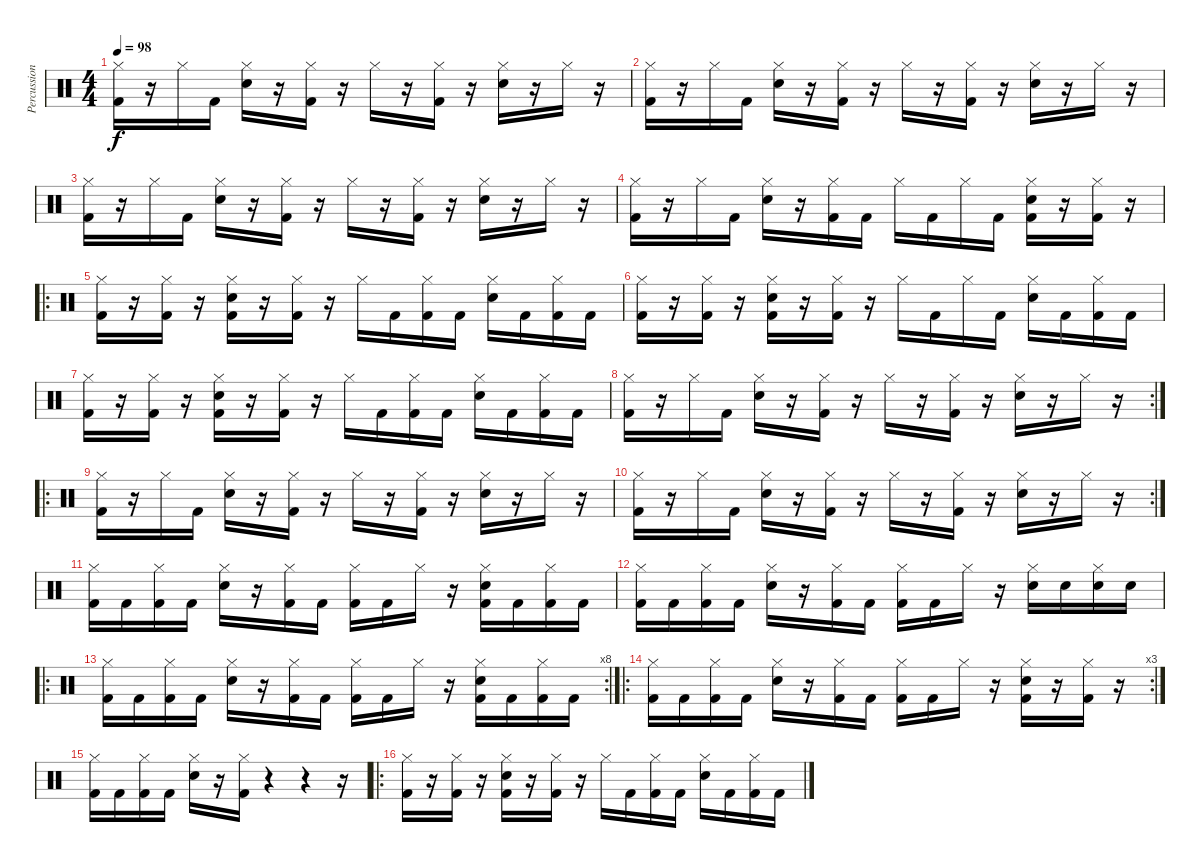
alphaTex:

\track ("Percussion" "Percussion") {instrument percussion}
\staff {score}
\articulation defaults
\ts (4 4)
\tempo 98
\clef neutral
\ks c
("Kick (hit) 2" "Hi-Hat (closed)").16{dy f} r.16 "Hi-Hat (closed)".16 "Kick (hit) 2".16 ("Hi-Hat (closed)" "Snare (hit) 2").16 r.16 ("Kick (hit) 2" "Hi-Hat (closed)").16 r.16 "Hi-Hat (closed)".16 r.16 ("Kick (hit) 2" "Hi-Hat (closed)").16 r.16 ("Hi-Hat (closed)" "Snare (hit) 2").16 r.16 "Hi-Hat (closed)".16 r.16 |
("Kick (hit) 2" "Hi-Hat (closed)").16 r.16 "Hi-Hat (closed)".16 "Kick (hit) 2".16 ("Hi-Hat (closed)" "Snare (hit) 2").16 r.16 ("Kick (hit) 2" "Hi-Hat (closed)").16 r.16 "Hi-Hat (closed)".16 r.16 ("Kick (hit) 2" "Hi-Hat (closed)").16 r.16 ("Hi-Hat (closed)" "Snare (hit) 2").16 r.16 "Hi-Hat (closed)".16 r.16 |
("Kick (hit) 2" "Hi-Hat (closed)").16 r.16 "Hi-Hat (closed)".16 "Kick (hit) 2".16 ("Hi-Hat (closed)" "Snare (hit) 2").16 r.16 ("Kick (hit) 2" "Hi-Hat (closed)").16 r.16 "Hi-Hat (closed)".16 r.16 ("Kick (hit) 2" "Hi-Hat (closed)").16 r.16 ("Hi-Hat (closed)" "Snare (hit) 2").16 r.16 "Hi-Hat (closed)".16 r.16 |
("Kick (hit) 2" "Hi-Hat (closed)").16 r.16 "Hi-Hat (closed)".16 "Kick (hit) 2".16 ("Hi-Hat (closed)" "Snare (hit) 2").16 r.16 ("Kick (hit) 2" "Hi-Hat (closed)").16 "Kick (hit) 2".16 "Hi-Hat (closed)".16 "Kick (hit) 2".16 "Hi-Hat (closed)".16 "Kick (hit) 2".16 ("Kick (hit) 2" "Hi-Hat (closed)" "Snare (hit) 2").16 r.16 ("Kick (hit) 2" "Hi-Hat (closed)").16 r.16 |
\ro
("Kick (hit) 2" "Hi-Hat (closed)").16 r.16 ("Kick (hit) 2" "Hi-Hat (closed)").16 r.16 ("Kick (hit) 2" "Hi-Hat (closed)" "Snare (hit) 2").16 r.16 ("Kick (hit) 2" "Hi-Hat (closed)").16 r.16 "Hi-Hat (closed)".16 "Kick (hit) 2".16 ("Kick (hit) 2" "Hi-Hat (closed)").16 "Kick (hit) 2".16 ("Hi-Hat (closed)" "Snare (hit) 2").16 "Kick (hit) 2".16 ("Kick (hit) 2" "Hi-Hat (closed)").16 "Kick (hit) 2".16 |
("Kick (hit) 2" "Hi-Hat (closed)").16 r.16 ("Kick (hit) 2" "Hi-Hat (closed)").16 r.16 ("Kick (hit) 2" "Hi-Hat (closed)" "Snare (hit) 2").16 r.16 ("Kick (hit) 2" "Hi-Hat (closed)").16 r.16 "Hi-Hat (closed)".16 "Kick (hit) 2".16 "Hi-Hat (closed)".16 "Kick (hit) 2".16 ("Hi-Hat (closed)" "Snare (hit) 2").16 "Kick (hit) 2".16 ("Kick (hit) 2" "Hi-Hat (closed)").16 "Kick (hit) 2".16 |
("Kick (hit) 2" "Hi-Hat (closed)").16 r.16 ("Kick (hit) 2" "Hi-Hat (closed)").16 r.16 ("Kick (hit) 2" "Hi-Hat (closed)" "Snare (hit) 2").16 r.16 ("Kick (hit) 2" "Hi-Hat (closed)").16 r.16 "Hi-Hat (closed)".16 "Kick (hit) 2".16 ("Kick (hit) 2" "Hi-Hat (closed)").16 "Kick (hit) 2".16 ("Hi-Hat (closed)" "Snare (hit) 2").16 "Kick (hit) 2".16 ("Kick (hit) 2" "Hi-Hat (closed)").16 "Kick (hit) 2".16 |
\rc 2
("Kick (hit) 2" "Hi-Hat (closed)").16 r.16 "Hi-Hat (closed)".16 "Kick (hit) 2".16 ("Hi-Hat (closed)" "Snare (hit) 2").16 r.16 ("Kick (hit) 2" "Hi-Hat (closed)").16 r.16 "Hi-Hat (closed)".16 r.16 ("Kick (hit) 2" "Hi-Hat (closed)").16 r.16 ("Hi-Hat (closed)" "Snare (hit) 2").16 r.16 "Hi-Hat (closed)".16 r.16 |
\ro
("Kick (hit) 2" "Hi-Hat (closed)").16 r.16 "Hi-Hat (closed)".16 "Kick (hit) 2".16 ("Hi-Hat (closed)" "Snare (hit) 2").16 r.16 ("Kick (hit) 2" "Hi-Hat (closed)").16 r.16 "Hi-Hat (closed)".16 r.16 ("Kick (hit) 2" "Hi-Hat (closed)").16 r.16 ("Hi-Hat (closed)" "Snare (hit) 2").16 r.16 "Hi-Hat (closed)".16 r.16 |
\rc 2
("Kick (hit) 2" "Hi-Hat (closed)").16 r.16 "Hi-Hat (closed)".16 "Kick (hit) 2".16 ("Hi-Hat (closed)" "Snare (hit) 2").16 r.16 ("Kick (hit) 2" "Hi-Hat (closed)").16 r.16 "Hi-Hat (closed)".16 r.16 ("Kick (hit) 2" "Hi-Hat (closed)").16 r.16 ("Hi-Hat (closed)" "Snare (hit) 2").16 r.16 "Hi-Hat (closed)".16 r.16 |
("Kick (hit) 2" "Hi-Hat (closed)").16 "Kick (hit) 2".16 ("Kick (hit) 2" "Hi-Hat (closed)").16 "Kick (hit) 2".16 ("Hi-Hat (closed)" "Snare (hit) 2").16 r.16 ("Kick (hit) 2" "Hi-Hat (closed)").16 "Kick (hit) 2".16 ("Kick (hit) 2" "Hi-Hat (closed)").16 "Kick (hit) 2".16 "Hi-Hat (closed)".16 r.16 ("Kick (hit) 2" "Hi-Hat (closed)" "Snare (hit) 2").16 "Kick (hit) 2".16 ("Kick (hit) 2" "Hi-Hat (closed)").16 "Kick (hit) 2".16 |
("Kick (hit) 2" "Hi-Hat (closed)").16 "Kick (hit) 2".16 ("Kick (hit) 2" "Hi-Hat (closed)").16 "Kick (hit) 2".16 ("Hi-Hat (closed)" "Snare (hit) 2").16 r.16 ("Kick (hit) 2" "Hi-Hat (closed)").16 "Kick (hit) 2".16 ("Kick (hit) 2" "Hi-Hat (closed)").16 "Kick (hit) 2".16 "Hi-Hat (closed)".16 r.16 ("Hi-Hat (closed)" "Snare (hit) 2").16 "Snare (hit) 2".16 ("Hi-Hat (closed)" "Snare (hit) 2").16 "Snare (hit) 2".16 |
\ro
\rc 8
("Kick (hit) 2" "Hi-Hat (closed)").16 "Kick (hit) 2".16 ("Kick (hit) 2" "Hi-Hat (closed)").16 "Kick (hit) 2".16 ("Hi-Hat (closed)" "Snare (hit) 2").16 r.16 ("Kick (hit) 2" "Hi-Hat (closed)").16 "Kick (hit) 2".16 ("Kick (hit) 2" "Hi-Hat (closed)").16 "Kick (hit) 2".16 "Hi-Hat (closed)".16 r.16 ("Kick (hit) 2" "Hi-Hat (closed)" "Snare (hit) 2").16 "Kick (hit) 2".16 ("Kick (hit) 2" "Hi-Hat (closed)").16 "Kick (hit) 2".16 |
\ro
\rc 3
("Kick (hit) 2" "Hi-Hat (closed)").16 "Kick (hit) 2".16 ("Kick (hit) 2" "Hi-Hat (closed)").16 "Kick (hit) 2".16 ("Hi-Hat (closed)" "Snare (hit) 2").16 r.16 ("Kick (hit) 2" "Hi-Hat (closed)").16 "Kick (hit) 2".16 ("Kick (hit) 2" "Hi-Hat (closed)").16 "Kick (hit) 2".16 "Hi-Hat (closed)".16 r.16 ("Kick (hit) 2" "Hi-Hat (closed)" "Snare (hit) 2").16 r.16 ("Kick (hit) 2" "Hi-Hat (closed)").16 r.16 |
("Kick (hit) 2" "Hi-Hat (closed)").16 "Kick (hit) 2".16 ("Kick (hit) 2" "Hi-Hat (closed)").16 "Kick (hit) 2".16 ("Hi-Hat (closed)" "Snare (hit) 2").16 r.16 ("Kick (hit) 2" "Hi-Hat (closed)").16 r.4 r.4 r.16 |
\ro
("Kick (hit) 2" "Hi-Hat (closed)").16 r.16 ("Kick (hit) 2" "Hi-Hat (closed)").16 r.16 ("Kick (hit) 2" "Hi-Hat (closed)" "Snare (hit) 2").16 r.16 ("Kick (hit) 2" "Hi-Hat (closed)").16 r.16 "Hi-Hat (closed)".16 "Kick (hit) 2".16 ("Kick (hit) 2" "Hi-Hat (closed)").16 "Kick (hit) 2".16 ("Hi-Hat (closed)" "Snare (hit) 2").16 "Kick (hit) 2".16 ("Kick (hit) 2" "Hi-Hat (closed)").16 "Kick (hit) 2".16
